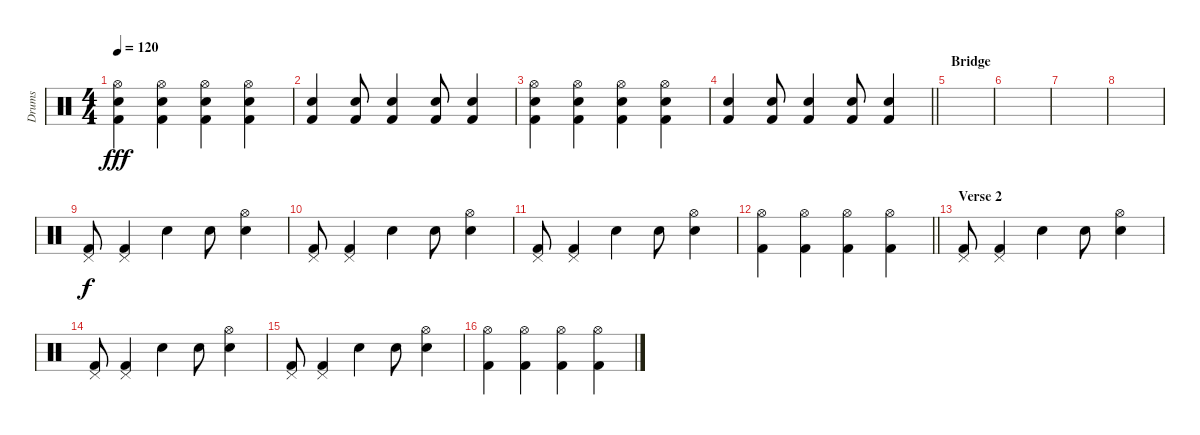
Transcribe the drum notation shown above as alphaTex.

\track ("Drums" "Drums") {instrument percussion}
\staff {score}
\articulation defaults
\ts (4 4)
\tempo 120
\clef neutral
\ks c
("Hi-Hat (open)" "Snare (hit) 2" "Kick (hit) 2").4{dy fff} ("Hi-Hat (open)" "Snare (hit) 2" "Kick (hit) 2").4 ("Hi-Hat (open)" "Snare (hit) 2" "Kick (hit) 2").4 ("Hi-Hat (open)" "Snare (hit) 2" "Kick (hit) 2").4 |
("Kick (hit) 2" "Snare (hit) 2").4 ("Kick (hit) 2" "Snare (hit) 2").8 ("Kick (hit) 2" "Snare (hit) 2").4 ("Kick (hit) 2" "Snare (hit) 2").8 ("Kick (hit) 2" "Snare (hit) 2").4 |
("Hi-Hat (open)" "Snare (hit) 2" "Kick (hit) 2").4 ("Hi-Hat (open)" "Snare (hit) 2" "Kick (hit) 2").4 ("Hi-Hat (open)" "Snare (hit) 2" "Kick (hit) 2").4 ("Hi-Hat (open)" "Snare (hit) 2" "Kick (hit) 2").4 |
\barLineRight lightlight
("Kick (hit) 2" "Snare (hit) 2").4 ("Kick (hit) 2" "Snare (hit) 2").8 ("Kick (hit) 2" "Snare (hit) 2").4 ("Kick (hit) 2" "Snare (hit) 2").8 ("Kick (hit) 2" "Snare (hit) 2").4 |
\section ("" "Bridge")
|
|
|
|
("Pedal Hi-Hat (hit)" "Kick (hit) 2").8{dy f} ("Pedal Hi-Hat (hit)" "Kick (hit) 2").4 "Electric Snare (hit)".4 "Electric Snare (hit)".8 ("Hi-Hat (open)" "Snare (hit) 2").4 |
("Pedal Hi-Hat (hit)" "Kick (hit) 2").8 ("Pedal Hi-Hat (hit)" "Kick (hit) 2").4 "Electric Snare (hit)".4 "Electric Snare (hit)".8 ("Hi-Hat (open)" "Snare (hit) 2").4 |
("Pedal Hi-Hat (hit)" "Kick (hit) 2").8 ("Pedal Hi-Hat (hit)" "Kick (hit) 2").4 "Electric Snare (hit)".4 "Electric Snare (hit)".8 ("Hi-Hat (open)" "Snare (hit) 2").4 |
\barLineRight lightlight
("Hi-Hat (open)" "Kick (hit) 2").4 ("Hi-Hat (open)" "Kick (hit) 2").4 ("Hi-Hat (open)" "Kick (hit) 2").4 ("Hi-Hat (open)" "Kick (hit) 2").4 |
\section ("" "Verse 2")
("Pedal Hi-Hat (hit)" "Kick (hit) 2").8 ("Pedal Hi-Hat (hit)" "Kick (hit) 2").4 "Electric Snare (hit)".4 "Electric Snare (hit)".8 ("Hi-Hat (open)" "Snare (hit) 2").4 |
("Pedal Hi-Hat (hit)" "Kick (hit) 2").8 ("Pedal Hi-Hat (hit)" "Kick (hit) 2").4 "Electric Snare (hit)".4 "Electric Snare (hit)".8 ("Hi-Hat (open)" "Snare (hit) 2").4 |
("Pedal Hi-Hat (hit)" "Kick (hit) 2").8 ("Pedal Hi-Hat (hit)" "Kick (hit) 2").4 "Electric Snare (hit)".4 "Electric Snare (hit)".8 ("Hi-Hat (open)" "Snare (hit) 2").4 |
("Hi-Hat (open)" "Kick (hit) 2").4 ("Hi-Hat (open)" "Kick (hit) 2").4 ("Hi-Hat (open)" "Kick (hit) 2").4 ("Hi-Hat (open)" "Kick (hit) 2").4
